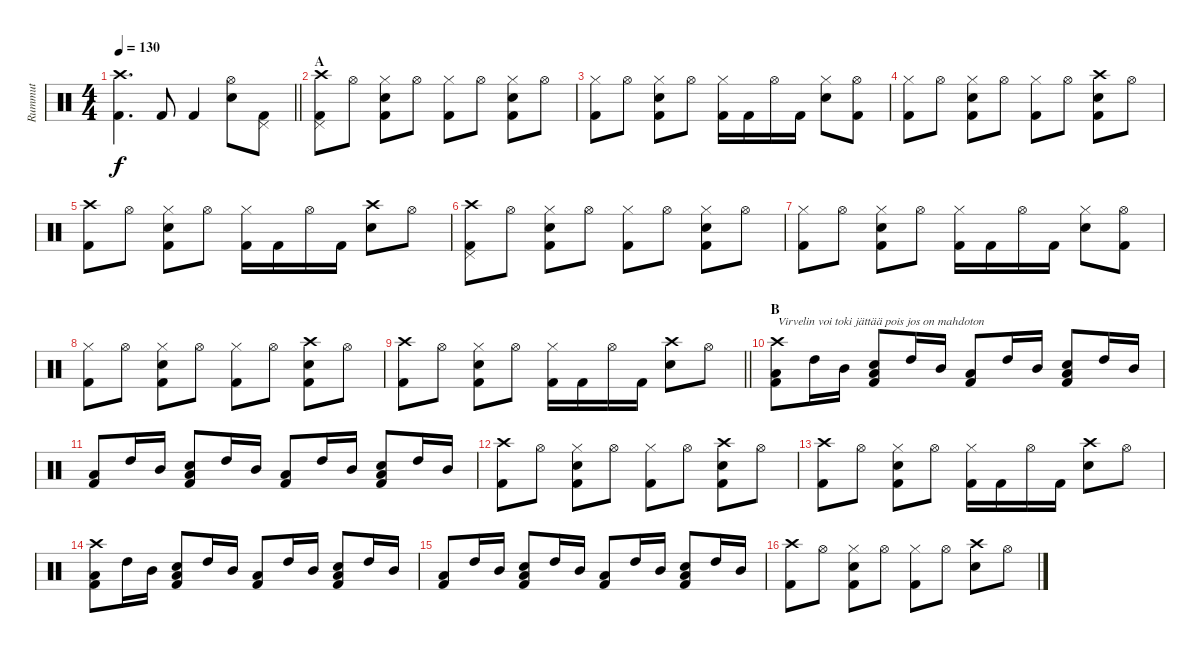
\track ("Rummut" "Rummut") {instrument percussion}
\staff {score}
\articulation defaults
\ts (4 4)
\tempo 130
\clef neutral
\barLineRight lightlight
\ks c
("Crash high (hit)" "Kick (hit) 2").4{d dy f} "Kick (hit) 2".8 "Kick (hit) 2".4 ("Hi-Hat (open)" "Snare (hit) 2").8 ("Pedal Hi-Hat (hit)" "Kick (hit) 2").8 |
\section ("" "A")
("Crash high (hit)" "Pedal Hi-Hat (hit)" "Kick (hit) 2").8 "Hi-Hat (open)".8 ("Hi-Hat (closed)" "Snare (hit) 2" "Kick (hit) 2").8 "Hi-Hat (open)".8 ("Hi-Hat (closed)" "Kick (hit) 2").8 "Hi-Hat (open)".8 ("Hi-Hat (closed)" "Snare (hit) 2" "Kick (hit) 2").8 "Hi-Hat (open)".8 |
("Hi-Hat (closed)" "Kick (hit) 2").8 "Hi-Hat (open)".8 ("Hi-Hat (closed)" "Snare (hit) 2" "Kick (hit) 2").8 "Hi-Hat (open)".8 ("Hi-Hat (closed)" "Kick (hit) 2").16 "Kick (hit) 2".16 "Hi-Hat (open)".16 "Kick (hit) 2".16 ("Hi-Hat (closed)" "Snare (hit) 2").8 ("Hi-Hat (open)" "Kick (hit) 2").8 |
("Hi-Hat (closed)" "Kick (hit) 2").8 "Hi-Hat (open)".8 ("Hi-Hat (closed)" "Snare (hit) 2" "Kick (hit) 2").8 "Hi-Hat (open)".8 ("Hi-Hat (closed)" "Kick (hit) 2").8 "Hi-Hat (open)".8 ("Crash high (hit)" "Snare (hit) 2" "Kick (hit) 2").8 "Hi-Hat (open)".8 |
("Crash high (hit)" "Kick (hit) 2").8 "Hi-Hat (open)".8 ("Hi-Hat (closed)" "Snare (hit) 2" "Kick (hit) 2").8 "Hi-Hat (open)".8 ("Hi-Hat (closed)" "Kick (hit) 2").16 "Kick (hit) 2".16 "Hi-Hat (open)".16 "Kick (hit) 2".16 ("Crash high (hit)" "Snare (hit) 2").8 "Hi-Hat (open)".8 |
("Crash high (hit)" "Pedal Hi-Hat (hit)" "Kick (hit) 2").8 "Hi-Hat (open)".8 ("Hi-Hat (closed)" "Snare (hit) 2" "Kick (hit) 2").8 "Hi-Hat (open)".8 ("Hi-Hat (closed)" "Kick (hit) 2").8 "Hi-Hat (open)".8 ("Hi-Hat (closed)" "Snare (hit) 2" "Kick (hit) 2").8 "Hi-Hat (open)".8 |
("Hi-Hat (closed)" "Kick (hit) 2").8 "Hi-Hat (open)".8 ("Hi-Hat (closed)" "Snare (hit) 2" "Kick (hit) 2").8 "Hi-Hat (open)".8 ("Hi-Hat (closed)" "Kick (hit) 2").16 "Kick (hit) 2".16 "Hi-Hat (open)".16 "Kick (hit) 2".16 ("Hi-Hat (closed)" "Snare (hit) 2").8 ("Hi-Hat (open)" "Kick (hit) 2").8 |
("Hi-Hat (closed)" "Kick (hit) 2").8 "Hi-Hat (open)".8 ("Hi-Hat (closed)" "Snare (hit) 2" "Kick (hit) 2").8 "Hi-Hat (open)".8 ("Hi-Hat (closed)" "Kick (hit) 2").8 "Hi-Hat (open)".8 ("Crash high (hit)" "Snare (hit) 2" "Kick (hit) 2").8 "Hi-Hat (open)".8 |
\barLineRight lightlight
("Crash high (hit)" "Kick (hit) 2").8 "Hi-Hat (open)".8 ("Hi-Hat (closed)" "Snare (hit) 2" "Kick (hit) 2").8 "Hi-Hat (open)".8 ("Hi-Hat (closed)" "Kick (hit) 2").16 "Kick (hit) 2".16 "Hi-Hat (open)".16 "Kick (hit) 2".16 ("Crash high (hit)" "Snare (hit) 2").8 "Hi-Hat (open)".8 |
\section ("" "B")
("Crash high (hit)" "Low Tom (hit)" "Kick (hit) 2").8{txt "Virvelin voi toki jättää pois jos on mahdoton"} "High Tom (hit)".16 "Mid Tom (hit)".16 ("Snare (hit) 2" "Low Tom (hit)" "Kick (hit) 2").8 "High Tom (hit)".16 "Mid Tom (hit)".16 ("Low Tom (hit)" "Kick (hit) 2").8 "High Tom (hit)".16 "Mid Tom (hit)".16 ("Snare (hit) 2" "Low Tom (hit)" "Kick (hit) 2").8 "High Tom (hit)".16 "Mid Tom (hit)".16 |
("Low Tom (hit)" "Kick (hit) 2").8 "High Tom (hit)".16 "Mid Tom (hit)".16 ("Snare (hit) 2" "Low Tom (hit)" "Kick (hit) 2").8 "High Tom (hit)".16 "Mid Tom (hit)".16 ("Low Tom (hit)" "Kick (hit) 2").8 "High Tom (hit)".16 "Mid Tom (hit)".16 ("Snare (hit) 2" "Low Tom (hit)" "Kick (hit) 2").8 "High Tom (hit)".16 "Mid Tom (hit)".16 |
("Crash high (hit)" "Kick (hit) 2").8 "Hi-Hat (open)".8 ("Hi-Hat (closed)" "Snare (hit) 2" "Kick (hit) 2").8 "Hi-Hat (open)".8 ("Hi-Hat (closed)" "Kick (hit) 2").8 "Hi-Hat (open)".8 ("Crash high (hit)" "Snare (hit) 2" "Kick (hit) 2").8 "Hi-Hat (open)".8 |
("Crash high (hit)" "Kick (hit) 2").8 "Hi-Hat (open)".8 ("Hi-Hat (closed)" "Snare (hit) 2" "Kick (hit) 2").8 "Hi-Hat (open)".8 ("Hi-Hat (closed)" "Kick (hit) 2").16 "Kick (hit) 2".16 "Hi-Hat (open)".16 "Kick (hit) 2".16 ("Crash high (hit)" "Snare (hit) 2").8 "Hi-Hat (open)".8 |
("Crash high (hit)" "Low Tom (hit)" "Kick (hit) 2").8 "High Tom (hit)".16 "Mid Tom (hit)".16 ("Snare (hit) 2" "Low Tom (hit)" "Kick (hit) 2").8 "High Tom (hit)".16 "Mid Tom (hit)".16 ("Low Tom (hit)" "Kick (hit) 2").8 "High Tom (hit)".16 "Mid Tom (hit)".16 ("Snare (hit) 2" "Low Tom (hit)" "Kick (hit) 2").8 "High Tom (hit)".16 "Mid Tom (hit)".16 |
("Low Tom (hit)" "Kick (hit) 2").8 "High Tom (hit)".16 "Mid Tom (hit)".16 ("Snare (hit) 2" "Low Tom (hit)" "Kick (hit) 2").8 "High Tom (hit)".16 "Mid Tom (hit)".16 ("Low Tom (hit)" "Kick (hit) 2").8 "High Tom (hit)".16 "Mid Tom (hit)".16 ("Snare (hit) 2" "Low Tom (hit)" "Kick (hit) 2").8 "High Tom (hit)".16 "Mid Tom (hit)".16 |
("Crash high (hit)" "Kick (hit) 2").8 "Hi-Hat (open)".8 ("Hi-Hat (closed)" "Snare (hit) 2" "Kick (hit) 2").8 "Hi-Hat (open)".8 ("Hi-Hat (closed)" "Kick (hit) 2").8 "Hi-Hat (open)".8 ("Crash high (hit)" "Snare (hit) 2").8 "Hi-Hat (open)".8
